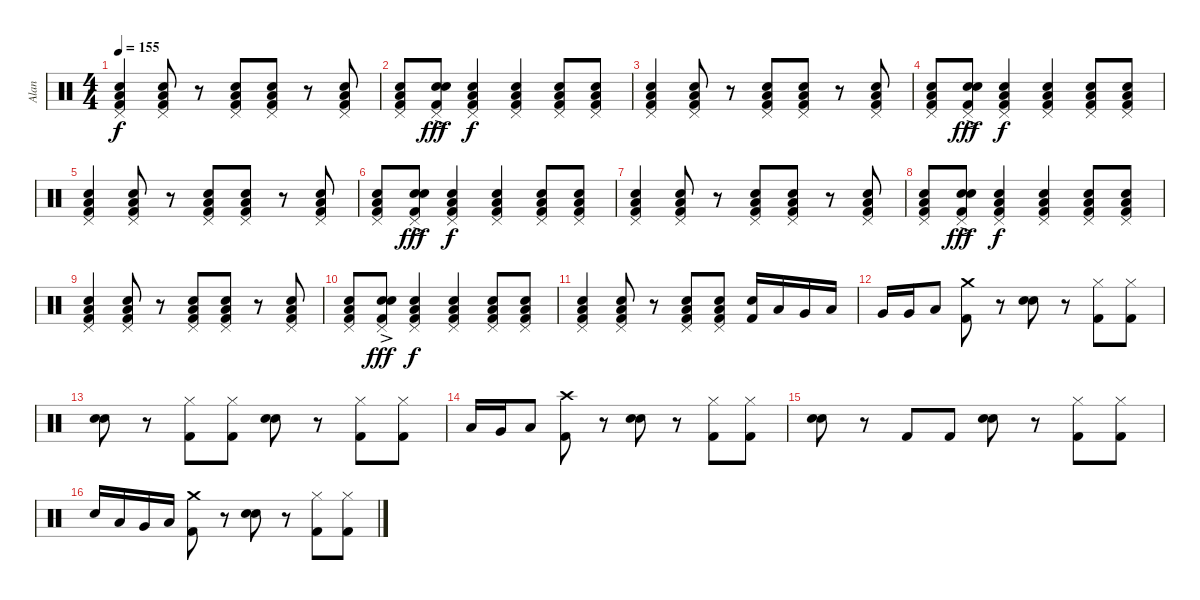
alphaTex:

\track ("Alan" "Alan") {instrument percussion}
\staff {score}
\articulation defaults
\ts (4 4)
\tempo 155
\clef neutral
\ks c
("Kick (hit) 2" "Low Floor Tom (hit)" "Snare (hit) 2" "Pedal Hi-Hat (hit)").4{dy f} ("Kick (hit) 2" "Low Floor Tom (hit)" "Snare (hit) 2" "Pedal Hi-Hat (hit)").8 r.8 ("Kick (hit) 2" "Low Floor Tom (hit)" "Snare (hit) 2" "Pedal Hi-Hat (hit)").8 ("Kick (hit) 2" "Low Floor Tom (hit)" "Snare (hit) 2" "Pedal Hi-Hat (hit)").8 r.8 ("Kick (hit) 2" "Low Floor Tom (hit)" "Snare (hit) 2" "Pedal Hi-Hat (hit)").8 |
("Kick (hit) 2" "Low Floor Tom (hit)" "Snare (hit) 2" "Pedal Hi-Hat (hit)").8 ("Kick (hit) 2"{ac} "Snare (hit) 2" "Snare (hit) 2" "Pedal Hi-Hat (hit)").8{dy fff volume 16} ("Kick (hit) 2" "Low Floor Tom (hit)" "Snare (hit) 2" "Pedal Hi-Hat (hit)").4{dy f volume 11} ("Kick (hit) 2" "Low Floor Tom (hit)" "Snare (hit) 2" "Pedal Hi-Hat (hit)").4 ("Kick (hit) 2" "Low Floor Tom (hit)" "Snare (hit) 2" "Pedal Hi-Hat (hit)").8 ("Kick (hit) 2" "Low Floor Tom (hit)" "Snare (hit) 2" "Pedal Hi-Hat (hit)").8 |
("Kick (hit) 2" "Low Floor Tom (hit)" "Snare (hit) 2" "Pedal Hi-Hat (hit)").4 ("Kick (hit) 2" "Low Floor Tom (hit)" "Snare (hit) 2" "Pedal Hi-Hat (hit)").8 r.8 ("Kick (hit) 2" "Low Floor Tom (hit)" "Snare (hit) 2" "Pedal Hi-Hat (hit)").8 ("Kick (hit) 2" "Low Floor Tom (hit)" "Snare (hit) 2" "Pedal Hi-Hat (hit)").8 r.8 ("Kick (hit) 2" "Low Floor Tom (hit)" "Snare (hit) 2" "Pedal Hi-Hat (hit)").8 |
("Kick (hit) 2" "Low Floor Tom (hit)" "Snare (hit) 2" "Pedal Hi-Hat (hit)").8 ("Kick (hit) 2"{ac} "Snare (hit) 2" "Snare (hit) 2" "Pedal Hi-Hat (hit)").8{dy fff volume 16} ("Kick (hit) 2" "Low Floor Tom (hit)" "Snare (hit) 2" "Pedal Hi-Hat (hit)").4{dy f volume 11} ("Kick (hit) 2" "Low Floor Tom (hit)" "Snare (hit) 2" "Pedal Hi-Hat (hit)").4 ("Kick (hit) 2" "Low Floor Tom (hit)" "Snare (hit) 2" "Pedal Hi-Hat (hit)").8 ("Kick (hit) 2" "Low Floor Tom (hit)" "Snare (hit) 2" "Pedal Hi-Hat (hit)").8 |
("Kick (hit) 2" "Low Floor Tom (hit)" "Snare (hit) 2" "Pedal Hi-Hat (hit)").4 ("Kick (hit) 2" "Low Floor Tom (hit)" "Snare (hit) 2" "Pedal Hi-Hat (hit)").8 r.8 ("Kick (hit) 2" "Low Floor Tom (hit)" "Snare (hit) 2" "Pedal Hi-Hat (hit)").8 ("Kick (hit) 2" "Low Floor Tom (hit)" "Snare (hit) 2" "Pedal Hi-Hat (hit)").8 r.8 ("Kick (hit) 2" "Low Floor Tom (hit)" "Snare (hit) 2" "Pedal Hi-Hat (hit)").8 |
("Kick (hit) 2" "Low Floor Tom (hit)" "Snare (hit) 2" "Pedal Hi-Hat (hit)").8 ("Kick (hit) 2"{ac} "Snare (hit) 2" "Snare (hit) 2" "Pedal Hi-Hat (hit)").8{dy fff volume 16} ("Kick (hit) 2" "Low Floor Tom (hit)" "Snare (hit) 2" "Pedal Hi-Hat (hit)").4{dy f volume 11} ("Kick (hit) 2" "Low Floor Tom (hit)" "Snare (hit) 2" "Pedal Hi-Hat (hit)").4 ("Kick (hit) 2" "Low Floor Tom (hit)" "Snare (hit) 2" "Pedal Hi-Hat (hit)").8 ("Kick (hit) 2" "Low Floor Tom (hit)" "Snare (hit) 2" "Pedal Hi-Hat (hit)").8 |
("Kick (hit) 2" "Low Floor Tom (hit)" "Snare (hit) 2" "Pedal Hi-Hat (hit)").4 ("Kick (hit) 2" "Low Floor Tom (hit)" "Snare (hit) 2" "Pedal Hi-Hat (hit)").8 r.8 ("Kick (hit) 2" "Low Floor Tom (hit)" "Snare (hit) 2" "Pedal Hi-Hat (hit)").8 ("Kick (hit) 2" "Low Floor Tom (hit)" "Snare (hit) 2" "Pedal Hi-Hat (hit)").8 r.8 ("Kick (hit) 2" "Low Floor Tom (hit)" "Snare (hit) 2" "Pedal Hi-Hat (hit)").8 |
("Kick (hit) 2" "Low Floor Tom (hit)" "Snare (hit) 2" "Pedal Hi-Hat (hit)").8 ("Kick (hit) 2"{ac} "Snare (hit) 2" "Snare (hit) 2" "Pedal Hi-Hat (hit)").8{dy fff volume 16} ("Kick (hit) 2" "Low Floor Tom (hit)" "Snare (hit) 2" "Pedal Hi-Hat (hit)").4{dy f volume 11} ("Kick (hit) 2" "Low Floor Tom (hit)" "Snare (hit) 2" "Pedal Hi-Hat (hit)").4 ("Kick (hit) 2" "Low Floor Tom (hit)" "Snare (hit) 2" "Pedal Hi-Hat (hit)").8 ("Kick (hit) 2" "Low Floor Tom (hit)" "Snare (hit) 2" "Pedal Hi-Hat (hit)").8 |
("Kick (hit) 2" "Low Floor Tom (hit)" "Snare (hit) 2" "Pedal Hi-Hat (hit)").4 ("Kick (hit) 2" "Low Floor Tom (hit)" "Snare (hit) 2" "Pedal Hi-Hat (hit)").8 r.8 ("Kick (hit) 2" "Low Floor Tom (hit)" "Snare (hit) 2" "Pedal Hi-Hat (hit)").8 ("Kick (hit) 2" "Low Floor Tom (hit)" "Snare (hit) 2" "Pedal Hi-Hat (hit)").8 r.8 ("Kick (hit) 2" "Low Floor Tom (hit)" "Snare (hit) 2" "Pedal Hi-Hat (hit)").8 |
("Kick (hit) 2" "Low Floor Tom (hit)" "Snare (hit) 2" "Pedal Hi-Hat (hit)").8 ("Kick (hit) 2"{ac} "Snare (hit) 2" "Snare (hit) 2" "Pedal Hi-Hat (hit)").8{dy fff volume 16} ("Kick (hit) 2" "Low Floor Tom (hit)" "Snare (hit) 2" "Pedal Hi-Hat (hit)").4{dy f volume 11} ("Kick (hit) 2" "Low Floor Tom (hit)" "Snare (hit) 2" "Pedal Hi-Hat (hit)").4 ("Kick (hit) 2" "Low Floor Tom (hit)" "Snare (hit) 2" "Pedal Hi-Hat (hit)").8 ("Kick (hit) 2" "Low Floor Tom (hit)" "Snare (hit) 2" "Pedal Hi-Hat (hit)").8 |
("Kick (hit) 2" "Low Floor Tom (hit)" "Snare (hit) 2" "Pedal Hi-Hat (hit)").4 ("Kick (hit) 2" "Low Floor Tom (hit)" "Snare (hit) 2" "Pedal Hi-Hat (hit)").8 r.8 ("Kick (hit) 2" "Low Floor Tom (hit)" "Snare (hit) 2" "Pedal Hi-Hat (hit)").8 ("Kick (hit) 2" "Low Floor Tom (hit)" "Snare (hit) 2" "Pedal Hi-Hat (hit)").8 ("Kick (hit) 2" "Snare (hit) 2").16 "Low Tom (hit)".16 "Very Low Tom (hit)".16 "Low Floor Tom (hit)".16 |
"Very Low Tom (hit)".16 "Very Low Tom (hit)".16 "Low Floor Tom (hit)".8 ("Crash medium (hit)" "Kick (hit) 2").8 r.8 ("Snare (hit) 2" "Snare (hit) 2").8 r.8 ("Hi-Hat (closed)" "Kick (hit) 2").8 ("Hi-Hat (closed)" "Kick (hit) 2").8 |
("Snare (hit) 2" "Snare (hit) 2").8 r.8 ("Hi-Hat (closed)" "Kick (hit) 2").8 ("Hi-Hat (closed)" "Kick (hit) 2").8 ("Snare (hit) 2" "Snare (hit) 2").8 r.8 ("Hi-Hat (closed)" "Kick (hit) 2").8 ("Hi-Hat (closed)" "Kick (hit) 2").8 |
"Low Tom (hit)".16 "Very Low Tom (hit)".16 "Low Floor Tom (hit)".8 ("Kick (hit) 2" "Crash high (hit)").8 r.8 ("Snare (hit) 2" "Snare (hit) 2").8 r.8 ("Hi-Hat (closed)" "Kick (hit) 2").8 ("Hi-Hat (closed)" "Kick (hit) 2").8 |
("Snare (hit) 2" "Snare (hit) 2").8 r.8 "Kick (hit) 2".8 "Kick (hit) 2".8 ("Snare (hit) 2" "Snare (hit) 2").8 r.8 ("Hi-Hat (closed)" "Kick (hit) 2").8 ("Hi-Hat (closed)" "Kick (hit) 2").8 |
"Snare (hit) 2".16 "Low Tom (hit)".16 "Very Low Tom (hit)".16 "Low Floor Tom (hit)".16 ("Kick (hit) 2" "Crash medium (hit)").8 r.8 ("Snare (hit) 2" "Snare (hit) 2").8 r.8 ("Hi-Hat (closed)" "Kick (hit) 2").8 ("Hi-Hat (closed)" "Kick (hit) 2").8
